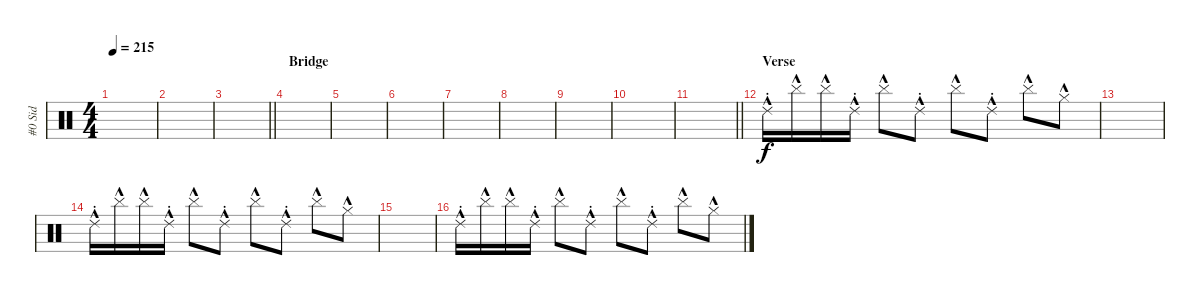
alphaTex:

\track ("#0 Sid" "#0 Sid") {instrument percussion}
\staff {score}
\articulation defaults
\ts (4 4)
\tempo 215
\clef neutral
\ks c
|
|
\barLineRight lightlight
|
\section ("" "Bridge")
|
|
|
|
|
|
|
\barLineRight lightlight
|
\section ("" "Verse")
"Ride (choke) 2"{hac}.16 "Cymbal (hit)"{hac}.16 "Cymbal (hit)"{hac}.16 "Ride (choke) 2"{hac}.16 "Cymbal (hit)"{hac}.8 "Ride (choke) 2"{hac}.8 "Cymbal (hit)"{hac}.8 "Ride (choke) 2"{hac}.8 "Cymbal (hit)"{hac}.8 "Hi-Hat (closed)"{hac}.8 |
|
"Ride (choke) 2"{hac}.16 "Cymbal (hit)"{hac}.16 "Cymbal (hit)"{hac}.16 "Ride (choke) 2"{hac}.16 "Cymbal (hit)"{hac}.8 "Ride (choke) 2"{hac}.8 "Cymbal (hit)"{hac}.8 "Ride (choke) 2"{hac}.8 "Cymbal (hit)"{hac}.8 "Hi-Hat (closed)"{hac}.8 |
|
"Ride (choke) 2"{hac}.16 "Cymbal (hit)"{hac}.16 "Cymbal (hit)"{hac}.16 "Ride (choke) 2"{hac}.16 "Cymbal (hit)"{hac}.8 "Ride (choke) 2"{hac}.8 "Cymbal (hit)"{hac}.8 "Ride (choke) 2"{hac}.8 "Cymbal (hit)"{hac}.8 "Hi-Hat (closed)"{hac}.8
